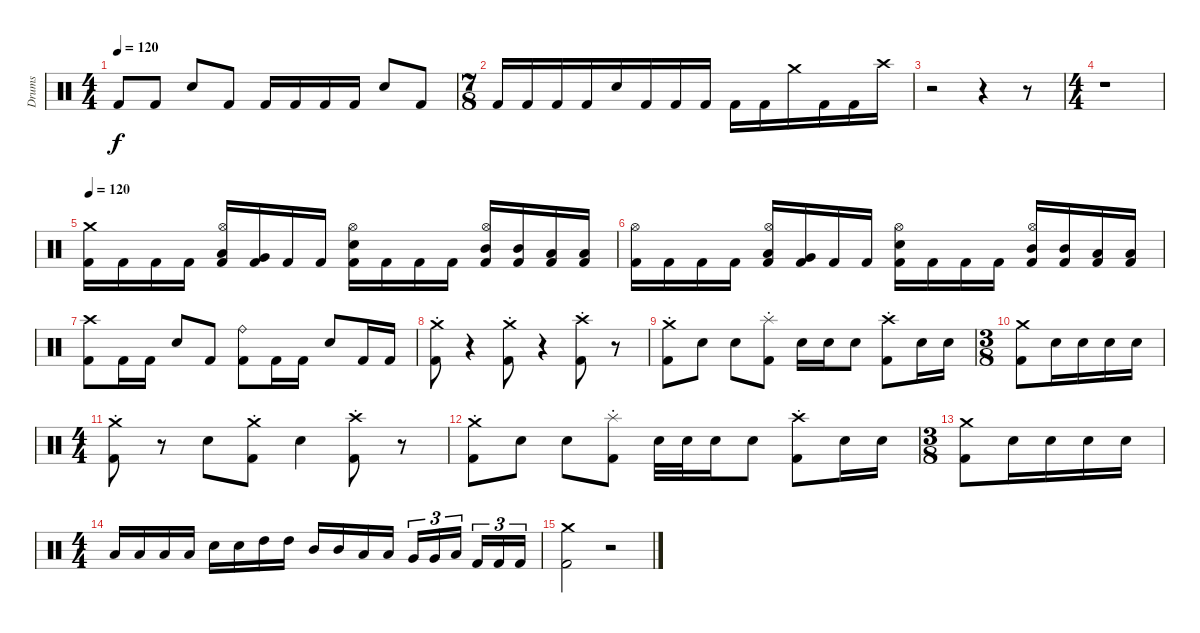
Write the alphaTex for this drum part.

\track ("Drums" "Drums") {instrument percussion}
\staff {score}
\articulation defaults
\ts (4 4)
\tempo 120
\clef neutral
\ks c "Kick (hit) 2".8{dy f} "Kick (hit) 2".8 "Electric Snare (hit)".8 "Kick (hit) 2".8 "Kick (hit) 2".16 "Kick (hit) 2".16 "Kick (hit) 2".16 "Kick (hit) 2".16 "Electric Snare (hit)".8 "Kick (hit) 2".8
|
\ts (7 8)
"Kick (hit) 2".16 "Kick (hit) 2".16 "Kick (hit) 2".16 "Kick (hit) 2".16 "Electric Snare (hit)".16 "Kick (hit) 2".16 "Kick (hit) 2".16 "Kick (hit) 2".16 "Kick (hit) 2".16 "Kick (hit) 2".16 "Crash medium (hit)".16 "Kick (hit) 2".16 "Kick (hit) 2".16 "Crash high (hit)".16 |
r.2 r.4 r.8 |
\ts (4 4)
r.1 |
\tempo 120
("Crash medium (hit)" "Kick (hit) 2").16 "Kick (hit) 2".16 "Kick (hit) 2".16 "Kick (hit) 2".16 ("Hi-Hat (open)" "Low Tom (hit)" "Kick (hit) 2").16 ("Very Low Tom (hit)" "Kick (hit) 2").16 "Kick (hit) 2".16 "Kick (hit) 2".16 ("Hi-Hat (open)" "Electric Snare (hit)" "Kick (hit) 2").16 "Kick (hit) 2".16 "Kick (hit) 2".16 "Kick (hit) 2".16 ("Hi-Hat (open)" "Mid Tom (hit)" "Kick (hit) 2").16 ("Mid Tom (hit)" "Kick (hit) 2").16 ("Low Tom (hit)" "Kick (hit) 2").16 ("Low Tom (hit)" "Kick (hit) 2").16 |
("Hi-Hat (open)" "Kick (hit) 2").16 "Kick (hit) 2".16 "Kick (hit) 2".16 "Kick (hit) 2".16 ("Hi-Hat (open)" "Low Tom (hit)" "Kick (hit) 2").16 ("Very Low Tom (hit)" "Kick (hit) 2").16 "Kick (hit) 2".16 "Kick (hit) 2".16 ("Hi-Hat (open)" "Electric Snare (hit)" "Kick (hit) 2").16 "Kick (hit) 2".16 "Kick (hit) 2".16 "Kick (hit) 2".16 ("Hi-Hat (open)" "Mid Tom (hit)" "Kick (hit) 2").16 ("Mid Tom (hit)" "Kick (hit) 2").16 ("Low Tom (hit)" "Kick (hit) 2").16 ("Low Tom (hit)" "Kick (hit) 2").16 |
("Crash high (hit)" "Kick (hit) 2").8 "Kick (hit) 2".16 "Kick (hit) 2".16 "Electric Snare (hit)".8 "Kick (hit) 2".8 ("Ride (bell)" "Kick (hit) 2").8 "Kick (hit) 2".16 "Kick (hit) 2".16 "Electric Snare (hit)".8 "Kick (hit) 2".16 "Kick (hit) 2".16 |
("Crash medium (hit)"{st} "Kick (hit) 2").8 r.4 ("Crash medium (hit)"{st} "Kick (hit) 2").8 r.4 ("Crash high (hit)"{st} "Kick (hit) 2").8 r.8 |
("Crash medium (hit)"{st} "Kick (hit) 2").8 "Electric Snare (hit)".8 "Electric Snare (hit)".8 ("Splash (hit)"{st} "Kick (hit) 2").8 "Electric Snare (hit)".16 "Electric Snare (hit)".16 "Electric Snare (hit)".8 ("Crash high (hit)"{st} "Kick (hit) 2").8 "Electric Snare (hit)".16 "Electric Snare (hit)".16 |
\ts (3 8)
("Crash medium (hit)" "Kick (hit) 2").8 "Electric Snare (hit)".16 "Electric Snare (hit)".16 "Electric Snare (hit)".16 "Electric Snare (hit)".16 |
\ts (4 4)
("Crash medium (hit)"{st} "Kick (hit) 2").8 r.8 "Electric Snare (hit)".8 ("Crash medium (hit)"{st} "Kick (hit) 2").8 "Electric Snare (hit)".4 ("Crash high (hit)"{st} "Kick (hit) 2").8 r.8 |
("Crash medium (hit)"{st} "Kick (hit) 2").8 "Electric Snare (hit)".8 "Electric Snare (hit)".8 ("Splash (hit)"{st} "Kick (hit) 2").8 "Electric Snare (hit)".32 "Electric Snare (hit)".32 "Electric Snare (hit)".16 "Electric Snare (hit)".8 ("Crash high (hit)"{st} "Kick (hit) 2").8 "Electric Snare (hit)".16 "Electric Snare (hit)".16 |
\ts (3 8)
("Crash medium (hit)" "Kick (hit) 2").8 "Electric Snare (hit)".16 "Electric Snare (hit)".16 "Electric Snare (hit)".16 "Electric Snare (hit)".16 |
\ts (4 4)
"Low Tom (hit)".16 "Low Tom (hit)".16 "Low Tom (hit)".16 "Low Tom (hit)".16 "Electric Snare (hit)".16 "Electric Snare (hit)".16 "High Tom (hit)".16 "High Tom (hit)".16 "Mid Tom (hit)".16 "Mid Tom (hit)".16 "Low Tom (hit)".16 "Low Tom (hit)".16 "Very Low Tom (hit)".16{tu (3 2)} "Very Low Tom (hit)".16{tu (3 2)} "Low Floor Tom (hit)".16{tu (3 2)} "Kick (hit) 2".16{tu (3 2)} "Kick (hit) 2".16{tu (3 2)} "Kick (hit) 2".16{tu (3 2)} |
("Crash medium (hit)" "Kick (hit) 2").2 r.2
